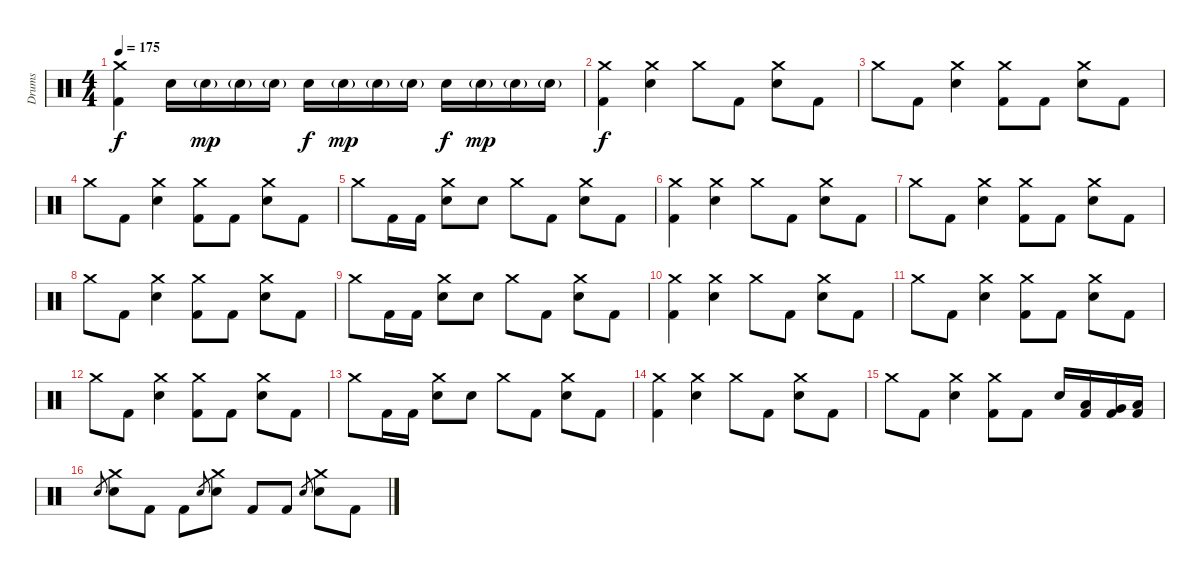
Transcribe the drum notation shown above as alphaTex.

\track ("Drums" "Drums") {instrument percussion}
\staff {score}
\articulation defaults
\ts (4 4)
\tempo 175
\clef neutral
\ks c
("Crash medium (hit)" "Kick (hit) 2").4{dy f} "Electric Snare (hit)".16 "Electric Snare (hit)"{g}.16{dy mp} "Electric Snare (hit)"{g}.16 "Electric Snare (hit)"{g}.16 "Electric Snare (hit)".16{dy f} "Electric Snare (hit)"{g}.16{dy mp} "Electric Snare (hit)"{g}.16 "Electric Snare (hit)"{g}.16 "Electric Snare (hit)".16{dy f} "Electric Snare (hit)"{g}.16{dy mp} "Electric Snare (hit)"{g}.16 "Electric Snare (hit)"{g}.16 |
("Crash medium (hit)" "Kick (hit) 2").4{dy f} ("Crash medium (hit)" "Electric Snare (hit)").4 "Crash medium (hit)".8 "Kick (hit) 2".8 ("Crash medium (hit)" "Electric Snare (hit)").8 "Kick (hit) 2".8 |
"Crash medium (hit)".8 "Kick (hit) 2".8 ("Crash medium (hit)" "Electric Snare (hit)").4 ("Crash medium (hit)" "Kick (hit) 2").8 "Kick (hit) 2".8 ("Crash medium (hit)" "Electric Snare (hit)").8 "Kick (hit) 2".8 |
"Crash medium (hit)".8 "Kick (hit) 2".8 ("Crash medium (hit)" "Electric Snare (hit)").4 ("Crash medium (hit)" "Kick (hit) 2").8 "Kick (hit) 2".8 ("Crash medium (hit)" "Electric Snare (hit)").8 "Kick (hit) 2".8 |
"Crash medium (hit)".8 "Kick (hit) 2".16 "Kick (hit) 2".16 ("Crash medium (hit)" "Electric Snare (hit)").8 "Electric Snare (hit)".8 "Crash medium (hit)".8 "Kick (hit) 2".8 ("Crash medium (hit)" "Electric Snare (hit)").8 "Kick (hit) 2".8 |
("Crash medium (hit)" "Kick (hit) 2").4 ("Crash medium (hit)" "Electric Snare (hit)").4 "Crash medium (hit)".8 "Kick (hit) 2".8 ("Crash medium (hit)" "Electric Snare (hit)").8 "Kick (hit) 2".8 |
"Crash medium (hit)".8 "Kick (hit) 2".8 ("Crash medium (hit)" "Electric Snare (hit)").4 ("Crash medium (hit)" "Kick (hit) 2").8 "Kick (hit) 2".8 ("Crash medium (hit)" "Electric Snare (hit)").8 "Kick (hit) 2".8 |
"Crash medium (hit)".8 "Kick (hit) 2".8 ("Crash medium (hit)" "Electric Snare (hit)").4 ("Crash medium (hit)" "Kick (hit) 2").8 "Kick (hit) 2".8 ("Crash medium (hit)" "Electric Snare (hit)").8 "Kick (hit) 2".8 |
"Crash medium (hit)".8 "Kick (hit) 2".16 "Kick (hit) 2".16 ("Crash medium (hit)" "Electric Snare (hit)").8 "Electric Snare (hit)".8 "Crash medium (hit)".8 "Kick (hit) 2".8 ("Crash medium (hit)" "Electric Snare (hit)").8 "Kick (hit) 2".8 |
("Crash medium (hit)" "Kick (hit) 2").4 ("Crash medium (hit)" "Electric Snare (hit)").4 "Crash medium (hit)".8 "Kick (hit) 2".8 ("Crash medium (hit)" "Electric Snare (hit)").8 "Kick (hit) 2".8 |
"Crash medium (hit)".8 "Kick (hit) 2".8 ("Crash medium (hit)" "Electric Snare (hit)").4 ("Crash medium (hit)" "Kick (hit) 2").8 "Kick (hit) 2".8 ("Crash medium (hit)" "Electric Snare (hit)").8 "Kick (hit) 2".8 |
"Crash medium (hit)".8 "Kick (hit) 2".8 ("Crash medium (hit)" "Electric Snare (hit)").4 ("Crash medium (hit)" "Kick (hit) 2").8 "Kick (hit) 2".8 ("Crash medium (hit)" "Electric Snare (hit)").8 "Kick (hit) 2".8 |
"Crash medium (hit)".8 "Kick (hit) 2".16 "Kick (hit) 2".16 ("Crash medium (hit)" "Electric Snare (hit)").8 "Electric Snare (hit)".8 "Crash medium (hit)".8 "Kick (hit) 2".8 ("Crash medium (hit)" "Electric Snare (hit)").8 "Kick (hit) 2".8 |
("Crash medium (hit)" "Kick (hit) 2").4 ("Crash medium (hit)" "Electric Snare (hit)").4 "Crash medium (hit)".8 "Kick (hit) 2".8 ("Crash medium (hit)" "Electric Snare (hit)").8 "Kick (hit) 2".8 |
"Crash medium (hit)".8 "Kick (hit) 2".8 ("Crash medium (hit)" "Electric Snare (hit)").4 ("Crash medium (hit)" "Kick (hit) 2").8 "Kick (hit) 2".8 "Electric Snare (hit)".16 ("Low Tom (hit)" "Kick (hit) 2").16 ("Very Low Tom (hit)" "Kick (hit) 2").16 ("Low Floor Tom (hit)" "Kick (hit) 2").16 |
"Electric Snare (hit)".8{gr} ("Crash medium (hit)" "Electric Snare (hit)").8 "Kick (hit) 2".8 "Kick (hit) 2".8 "Electric Snare (hit)".8{gr} ("Crash medium (hit)" "Electric Snare (hit)").8 "Kick (hit) 2".8 "Kick (hit) 2".8 "Electric Snare (hit)".8{gr} ("Crash medium (hit)" "Electric Snare (hit)").8 "Kick (hit) 2".8
